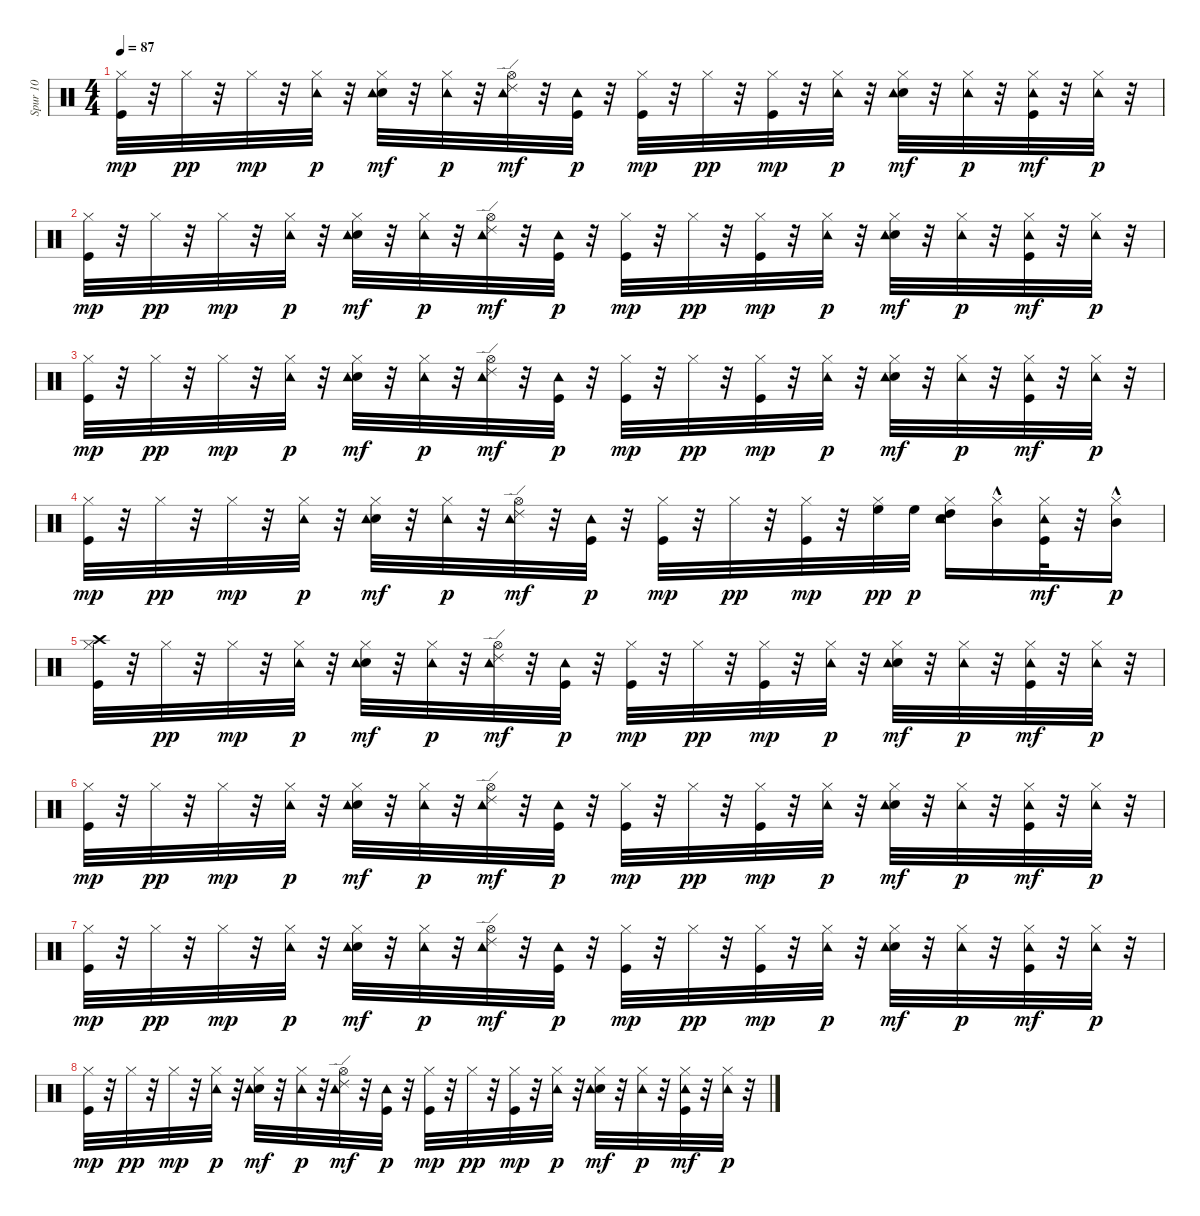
\track ("Spur 10" "Spur 10") {instrument percussion}
\staff {score}
\articulation defaults
\ts (4 4)
\tempo 87
\clef neutral
\ks c
("Kick (hit)" "Hi-Hat (closed)").32{dy mp} r.32 "Hi-Hat (closed)".32{dy pp} r.32 "Hi-Hat (closed)".32{dy mp} r.32 ("Hi-Hat (closed)" "Tambourine (hit)").32{dy p} r.32 ("Electric Snare (hit)" "Hi-Hat (closed)" "Tambourine (hit)").32{dy mf} r.32 ("Hi-Hat (closed)" "Tambourine (hit)").32{dy p} r.32 ("Hi-Hat (open)" "Tambourine (hit)" "Ride (edge) 2").32{dy mf} r.32 ("Kick (hit)" "Tambourine (hit)").32{dy p} r.32 ("Kick (hit)" "Hi-Hat (closed)").32{dy mp} r.32 "Hi-Hat (closed)".32{dy pp} r.32 ("Kick (hit)" "Hi-Hat (closed)").32{dy mp} r.32 ("Hi-Hat (closed)" "Tambourine (hit)").32{dy p} r.32 ("Electric Snare (hit)" "Hi-Hat (closed)" "Tambourine (hit)").32{dy mf} r.32 ("Hi-Hat (closed)" "Tambourine (hit)").32{dy p} r.32 ("Kick (hit)" "Hi-Hat (closed)" "Tambourine (hit)").32{dy mf} r.32 ("Hi-Hat (closed)" "Tambourine (hit)").32{dy p} r.32 |
("Kick (hit)" "Hi-Hat (closed)").32{dy mp} r.32 "Hi-Hat (closed)".32{dy pp} r.32 "Hi-Hat (closed)".32{dy mp} r.32 ("Hi-Hat (closed)" "Tambourine (hit)").32{dy p} r.32 ("Electric Snare (hit)" "Hi-Hat (closed)" "Tambourine (hit)").32{dy mf} r.32 ("Hi-Hat (closed)" "Tambourine (hit)").32{dy p} r.32 ("Hi-Hat (open)" "Tambourine (hit)" "Ride (edge) 2").32{dy mf} r.32 ("Kick (hit)" "Tambourine (hit)").32{dy p} r.32 ("Kick (hit)" "Hi-Hat (closed)").32{dy mp} r.32 "Hi-Hat (closed)".32{dy pp} r.32 ("Kick (hit)" "Hi-Hat (closed)").32{dy mp} r.32 ("Hi-Hat (closed)" "Tambourine (hit)").32{dy p} r.32 ("Electric Snare (hit)" "Hi-Hat (closed)" "Tambourine (hit)").32{dy mf} r.32 ("Hi-Hat (closed)" "Tambourine (hit)").32{dy p} r.32 ("Kick (hit)" "Hi-Hat (closed)" "Tambourine (hit)").32{dy mf} r.32 ("Hi-Hat (closed)" "Tambourine (hit)").32{dy p} r.32 |
("Kick (hit)" "Hi-Hat (closed)").32{dy mp} r.32 "Hi-Hat (closed)".32{dy pp} r.32 "Hi-Hat (closed)".32{dy mp} r.32 ("Hi-Hat (closed)" "Tambourine (hit)").32{dy p} r.32 ("Electric Snare (hit)" "Hi-Hat (closed)" "Tambourine (hit)").32{dy mf} r.32 ("Hi-Hat (closed)" "Tambourine (hit)").32{dy p} r.32 ("Hi-Hat (open)" "Tambourine (hit)" "Ride (edge) 2").32{dy mf} r.32 ("Kick (hit)" "Tambourine (hit)").32{dy p} r.32 ("Kick (hit)" "Hi-Hat (closed)").32{dy mp} r.32 "Hi-Hat (closed)".32{dy pp} r.32 ("Kick (hit)" "Hi-Hat (closed)").32{dy mp} r.32 ("Hi-Hat (closed)" "Tambourine (hit)").32{dy p} r.32 ("Electric Snare (hit)" "Hi-Hat (closed)" "Tambourine (hit)").32{dy mf} r.32 ("Hi-Hat (closed)" "Tambourine (hit)").32{dy p} r.32 ("Kick (hit)" "Hi-Hat (closed)" "Tambourine (hit)").32{dy mf} r.32 ("Hi-Hat (closed)" "Tambourine (hit)").32{dy p} r.32 |
("Kick (hit)" "Hi-Hat (closed)").32{dy mp} r.32 "Hi-Hat (closed)".32{dy pp} r.32 "Hi-Hat (closed)".32{dy mp} r.32 ("Hi-Hat (closed)" "Tambourine (hit)").32{dy p} r.32 ("Electric Snare (hit)" "Hi-Hat (closed)" "Tambourine (hit)").32{dy mf} r.32 ("Hi-Hat (closed)" "Tambourine (hit)").32{dy p} r.32 ("Hi-Hat (open)" "Tambourine (hit)" "Ride (edge) 2").32{dy mf} r.32 ("Kick (hit)" "Tambourine (hit)").32{dy p} r.32 ("Kick (hit)" "Hi-Hat (closed)").32{dy mp} r.32 "Hi-Hat (closed)".32{dy pp} r.32 ("Kick (hit)" "Hi-Hat (closed)").32{dy mp} r.32 ("Hi-Hat (closed)" "High Floor Tom (hit)").32{dy pp} "High Floor Tom (hit)".32{dy p} ("Electric Snare (hit)" "Hi-Hat (closed)" "Tambourine (hit)" "High Tom (hit)").16 ("Hi-Hat (closed)" "Mid Tom (hit)"{hac}).16 ("Kick (hit)" "Hi-Hat (closed)" "Tambourine (hit)").32{dy mf} r.32 ("Hi-Hat (closed)" "Mid Tom (hit)"{hac}).16{dy p} |
("Kick (hit)" "Hi-Hat (closed)" "Crash high (hit)").32 r.32 "Hi-Hat (closed)".32{dy pp} r.32 "Hi-Hat (closed)".32{dy mp} r.32 ("Hi-Hat (closed)" "Tambourine (hit)").32{dy p} r.32 ("Electric Snare (hit)" "Hi-Hat (closed)" "Tambourine (hit)").32{dy mf} r.32 ("Hi-Hat (closed)" "Tambourine (hit)").32{dy p} r.32 ("Hi-Hat (open)" "Tambourine (hit)" "Ride (edge) 2").32{dy mf} r.32 ("Kick (hit)" "Tambourine (hit)").32{dy p} r.32 ("Kick (hit)" "Hi-Hat (closed)").32{dy mp} r.32 "Hi-Hat (closed)".32{dy pp} r.32 ("Kick (hit)" "Hi-Hat (closed)").32{dy mp} r.32 ("Hi-Hat (closed)" "Tambourine (hit)").32{dy p} r.32 ("Electric Snare (hit)" "Hi-Hat (closed)" "Tambourine (hit)").32{dy mf} r.32 ("Hi-Hat (closed)" "Tambourine (hit)").32{dy p} r.32 ("Kick (hit)" "Hi-Hat (closed)" "Tambourine (hit)").32{dy mf} r.32 ("Hi-Hat (closed)" "Tambourine (hit)").32{dy p} r.32 |
("Kick (hit)" "Hi-Hat (closed)").32{dy mp} r.32 "Hi-Hat (closed)".32{dy pp} r.32 "Hi-Hat (closed)".32{dy mp} r.32 ("Hi-Hat (closed)" "Tambourine (hit)").32{dy p} r.32 ("Electric Snare (hit)" "Hi-Hat (closed)" "Tambourine (hit)").32{dy mf} r.32 ("Hi-Hat (closed)" "Tambourine (hit)").32{dy p} r.32 ("Hi-Hat (open)" "Tambourine (hit)" "Ride (edge) 2").32{dy mf} r.32 ("Kick (hit)" "Tambourine (hit)").32{dy p} r.32 ("Kick (hit)" "Hi-Hat (closed)").32{dy mp} r.32 "Hi-Hat (closed)".32{dy pp} r.32 ("Kick (hit)" "Hi-Hat (closed)").32{dy mp} r.32 ("Hi-Hat (closed)" "Tambourine (hit)").32{dy p} r.32 ("Electric Snare (hit)" "Hi-Hat (closed)" "Tambourine (hit)").32{dy mf} r.32 ("Hi-Hat (closed)" "Tambourine (hit)").32{dy p} r.32 ("Kick (hit)" "Hi-Hat (closed)" "Tambourine (hit)").32{dy mf} r.32 ("Hi-Hat (closed)" "Tambourine (hit)").32{dy p} r.32 |
("Kick (hit)" "Hi-Hat (closed)").32{dy mp} r.32 "Hi-Hat (closed)".32{dy pp} r.32 "Hi-Hat (closed)".32{dy mp} r.32 ("Hi-Hat (closed)" "Tambourine (hit)").32{dy p} r.32 ("Electric Snare (hit)" "Hi-Hat (closed)" "Tambourine (hit)").32{dy mf} r.32 ("Hi-Hat (closed)" "Tambourine (hit)").32{dy p} r.32 ("Hi-Hat (open)" "Tambourine (hit)" "Ride (edge) 2").32{dy mf} r.32 ("Kick (hit)" "Tambourine (hit)").32{dy p} r.32 ("Kick (hit)" "Hi-Hat (closed)").32{dy mp} r.32 "Hi-Hat (closed)".32{dy pp} r.32 ("Kick (hit)" "Hi-Hat (closed)").32{dy mp} r.32 ("Hi-Hat (closed)" "Tambourine (hit)").32{dy p} r.32 ("Electric Snare (hit)" "Hi-Hat (closed)" "Tambourine (hit)").32{dy mf} r.32 ("Hi-Hat (closed)" "Tambourine (hit)").32{dy p} r.32 ("Kick (hit)" "Hi-Hat (closed)" "Tambourine (hit)").32{dy mf} r.32 ("Hi-Hat (closed)" "Tambourine (hit)").32{dy p} r.32 |
("Kick (hit)" "Hi-Hat (closed)").32{dy mp} r.32 "Hi-Hat (closed)".32{dy pp} r.32 "Hi-Hat (closed)".32{dy mp} r.32 ("Hi-Hat (closed)" "Tambourine (hit)").32{dy p} r.32 ("Electric Snare (hit)" "Hi-Hat (closed)" "Tambourine (hit)").32{dy mf} r.32 ("Hi-Hat (closed)" "Tambourine (hit)").32{dy p} r.32 ("Hi-Hat (open)" "Tambourine (hit)" "Ride (edge) 2").32{dy mf} r.32 ("Kick (hit)" "Tambourine (hit)").32{dy p} r.32 ("Kick (hit)" "Hi-Hat (closed)").32{dy mp} r.32 "Hi-Hat (closed)".32{dy pp} r.32 ("Kick (hit)" "Hi-Hat (closed)").32{dy mp} r.32 ("Hi-Hat (closed)" "Tambourine (hit)").32{dy p} r.32 ("Electric Snare (hit)" "Hi-Hat (closed)" "Tambourine (hit)").32{dy mf} r.32 ("Hi-Hat (closed)" "Tambourine (hit)").32{dy p} r.32 ("Kick (hit)" "Hi-Hat (closed)" "Tambourine (hit)").32{dy mf} r.32 ("Hi-Hat (closed)" "Tambourine (hit)").32{dy p} r.32
